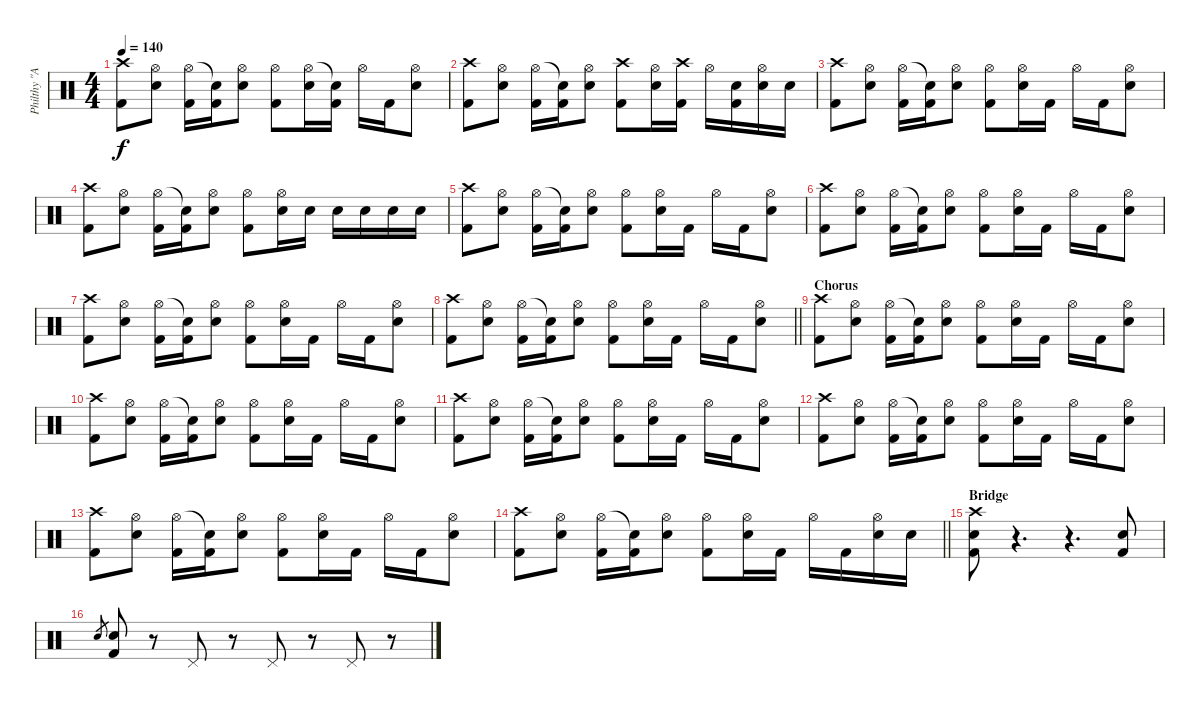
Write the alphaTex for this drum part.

\track ("Philthy \"Animal\" Taylor (drums)" "Philthy \"A") {instrument percussion}
\staff {score}
\articulation defaults
\ts (4 4)
\tempo 140
\clef neutral
\ks c
("Crash high (hit)" "Kick (hit) 2").8{dy f} ("Hi-Hat (open)" "Electric Snare (hit)").8 ("Hi-Hat (open)" "Kick (hit) 2").16 ("Snare (hit)"{t} "Kick (hit) 2").16 ("Hi-Hat (open)" "Electric Snare (hit)").8 ("Hi-Hat (open)" "Kick (hit) 2").8 ("Hi-Hat (open)" "Electric Snare (hit)").16 ("Snare (hit)"{t} "Kick (hit) 2").16 "Hi-Hat (open)".16 "Kick (hit) 2".16 ("Hi-Hat (open)" "Electric Snare (hit)").8 |
("Crash high (hit)" "Kick (hit) 2").8 ("Hi-Hat (open)" "Electric Snare (hit)").8 ("Hi-Hat (open)" "Kick (hit) 2").16 ("Snare (hit)"{t} "Kick (hit) 2").16 ("Hi-Hat (open)" "Electric Snare (hit)").8 ("Crash high (hit)" "Kick (hit) 2").8 ("Hi-Hat (open)" "Electric Snare (hit)").16 ("Crash high (hit)" "Kick (hit) 2").16 "Hi-Hat (open)".16 ("Electric Snare (hit)" "Kick (hit) 2").16 ("Hi-Hat (open)" "Electric Snare (hit)").16 "Electric Snare (hit)".16 |
("Crash high (hit)" "Kick (hit) 2").8 ("Hi-Hat (open)" "Electric Snare (hit)").8 ("Hi-Hat (open)" "Kick (hit) 2").16 ("Snare (hit)"{t} "Kick (hit) 2").16 ("Hi-Hat (open)" "Electric Snare (hit)").8 ("Hi-Hat (open)" "Kick (hit) 2").8 ("Hi-Hat (open)" "Electric Snare (hit)").16 "Kick (hit) 2".16 "Hi-Hat (open)".16 "Kick (hit) 2".16 ("Hi-Hat (open)" "Electric Snare (hit)").8 |
("Crash high (hit)" "Kick (hit) 2").8 ("Hi-Hat (open)" "Electric Snare (hit)").8 ("Hi-Hat (open)" "Kick (hit) 2").16 ("Snare (hit)"{t} "Kick (hit) 2").16 ("Hi-Hat (open)" "Electric Snare (hit)").8 ("Hi-Hat (open)" "Kick (hit) 2").8 ("Hi-Hat (open)" "Electric Snare (hit)").16 "Electric Snare (hit)".16 "Electric Snare (hit)".16 "Electric Snare (hit)".16 "Electric Snare (hit)".16 "Electric Snare (hit)".16 |
("Crash high (hit)" "Kick (hit) 2").8 ("Hi-Hat (open)" "Electric Snare (hit)").8 ("Hi-Hat (open)" "Kick (hit) 2").16 ("Snare (hit)"{t} "Kick (hit) 2").16 ("Hi-Hat (open)" "Electric Snare (hit)").8 ("Hi-Hat (open)" "Kick (hit) 2").8 ("Hi-Hat (open)" "Electric Snare (hit)").16 "Kick (hit) 2".16 "Hi-Hat (open)".16 "Kick (hit) 2".16 ("Hi-Hat (open)" "Electric Snare (hit)").8 |
("Crash high (hit)" "Kick (hit) 2").8 ("Hi-Hat (open)" "Electric Snare (hit)").8 ("Hi-Hat (open)" "Kick (hit) 2").16 ("Snare (hit)"{t} "Kick (hit) 2").16 ("Hi-Hat (open)" "Electric Snare (hit)").8 ("Hi-Hat (open)" "Kick (hit) 2").8 ("Hi-Hat (open)" "Electric Snare (hit)").16 "Kick (hit) 2".16 "Hi-Hat (open)".16 "Kick (hit) 2".16 ("Hi-Hat (open)" "Electric Snare (hit)").8 |
("Crash high (hit)" "Kick (hit) 2").8 ("Hi-Hat (open)" "Electric Snare (hit)").8 ("Hi-Hat (open)" "Kick (hit) 2").16 ("Snare (hit)"{t} "Kick (hit) 2").16 ("Hi-Hat (open)" "Electric Snare (hit)").8 ("Hi-Hat (open)" "Kick (hit) 2").8 ("Hi-Hat (open)" "Electric Snare (hit)").16 "Kick (hit) 2".16 "Hi-Hat (open)".16 "Kick (hit) 2".16 ("Hi-Hat (open)" "Electric Snare (hit)").8 |
\barLineRight lightlight
("Crash high (hit)" "Kick (hit) 2").8 ("Hi-Hat (open)" "Electric Snare (hit)").8 ("Hi-Hat (open)" "Kick (hit) 2").16 ("Snare (hit)"{t} "Kick (hit) 2").16 ("Hi-Hat (open)" "Electric Snare (hit)").8 ("Hi-Hat (open)" "Kick (hit) 2").8 ("Hi-Hat (open)" "Electric Snare (hit)").16 "Kick (hit) 2".16 "Hi-Hat (open)".16 "Kick (hit) 2".16 ("Hi-Hat (open)" "Electric Snare (hit)").8 |
\section ("" "Chorus")
("Crash high (hit)" "Kick (hit) 2").8 ("Hi-Hat (open)" "Electric Snare (hit)").8 ("Hi-Hat (open)" "Kick (hit) 2").16 ("Snare (hit)"{t} "Kick (hit) 2").16 ("Hi-Hat (open)" "Electric Snare (hit)").8 ("Hi-Hat (open)" "Kick (hit) 2").8 ("Hi-Hat (open)" "Electric Snare (hit)").16 "Kick (hit) 2".16 "Hi-Hat (open)".16 "Kick (hit) 2".16 ("Hi-Hat (open)" "Electric Snare (hit)").8 |
("Crash high (hit)" "Kick (hit) 2").8 ("Hi-Hat (open)" "Electric Snare (hit)").8 ("Hi-Hat (open)" "Kick (hit) 2").16 ("Snare (hit)"{t} "Kick (hit) 2").16 ("Hi-Hat (open)" "Electric Snare (hit)").8 ("Hi-Hat (open)" "Kick (hit) 2").8 ("Hi-Hat (open)" "Electric Snare (hit)").16 "Kick (hit) 2".16 "Hi-Hat (open)".16 "Kick (hit) 2".16 ("Hi-Hat (open)" "Electric Snare (hit)").8 |
("Crash high (hit)" "Kick (hit) 2").8 ("Hi-Hat (open)" "Electric Snare (hit)").8 ("Hi-Hat (open)" "Kick (hit) 2").16 ("Snare (hit)"{t} "Kick (hit) 2").16 ("Hi-Hat (open)" "Electric Snare (hit)").8 ("Hi-Hat (open)" "Kick (hit) 2").8 ("Hi-Hat (open)" "Electric Snare (hit)").16 "Kick (hit) 2".16 "Hi-Hat (open)".16 "Kick (hit) 2".16 ("Hi-Hat (open)" "Electric Snare (hit)").8 |
("Crash high (hit)" "Kick (hit) 2").8 ("Hi-Hat (open)" "Electric Snare (hit)").8 ("Hi-Hat (open)" "Kick (hit) 2").16 ("Snare (hit)"{t} "Kick (hit) 2").16 ("Hi-Hat (open)" "Electric Snare (hit)").8 ("Hi-Hat (open)" "Kick (hit) 2").8 ("Hi-Hat (open)" "Electric Snare (hit)").16 "Kick (hit) 2".16 "Hi-Hat (open)".16 "Kick (hit) 2".16 ("Hi-Hat (open)" "Electric Snare (hit)").8 |
("Crash high (hit)" "Kick (hit) 2").8 ("Hi-Hat (open)" "Electric Snare (hit)").8 ("Hi-Hat (open)" "Kick (hit) 2").16 ("Snare (hit)"{t} "Kick (hit) 2").16 ("Hi-Hat (open)" "Electric Snare (hit)").8 ("Hi-Hat (open)" "Kick (hit) 2").8 ("Hi-Hat (open)" "Electric Snare (hit)").16 "Kick (hit) 2".16 "Hi-Hat (open)".16 "Kick (hit) 2".16 ("Hi-Hat (open)" "Electric Snare (hit)").8 |
\barLineRight lightlight
("Crash high (hit)" "Kick (hit) 2").8 ("Hi-Hat (open)" "Snare (hit) 2").8 ("Hi-Hat (open)" "Kick (hit) 2").16 ("Snare (hit)"{t} "Kick (hit) 2").16 ("Hi-Hat (open)" "Snare (hit) 2").8 ("Hi-Hat (open)" "Kick (hit) 2").8 ("Hi-Hat (open)" "Electric Snare (hit)").16 "Kick (hit) 2".16 "Hi-Hat (open)".16 "Kick (hit) 2".16 ("Hi-Hat (open)" "Electric Snare (hit)").16 "Electric Snare (hit)".16 |
\section ("" "Bridge")
("Crash high (hit)" "Electric Snare (hit)" "Kick (hit) 2").8 r.4{d} r.4{d} ("Electric Snare (hit)" "Kick (hit) 2").8 |
"Electric Snare (hit)".8{gr} ("Electric Snare (hit)" "Kick (hit) 2").8 r.8 "Pedal Hi-Hat (hit)".8 r.8 "Pedal Hi-Hat (hit)".8 r.8 "Pedal Hi-Hat (hit)".8 r.8
